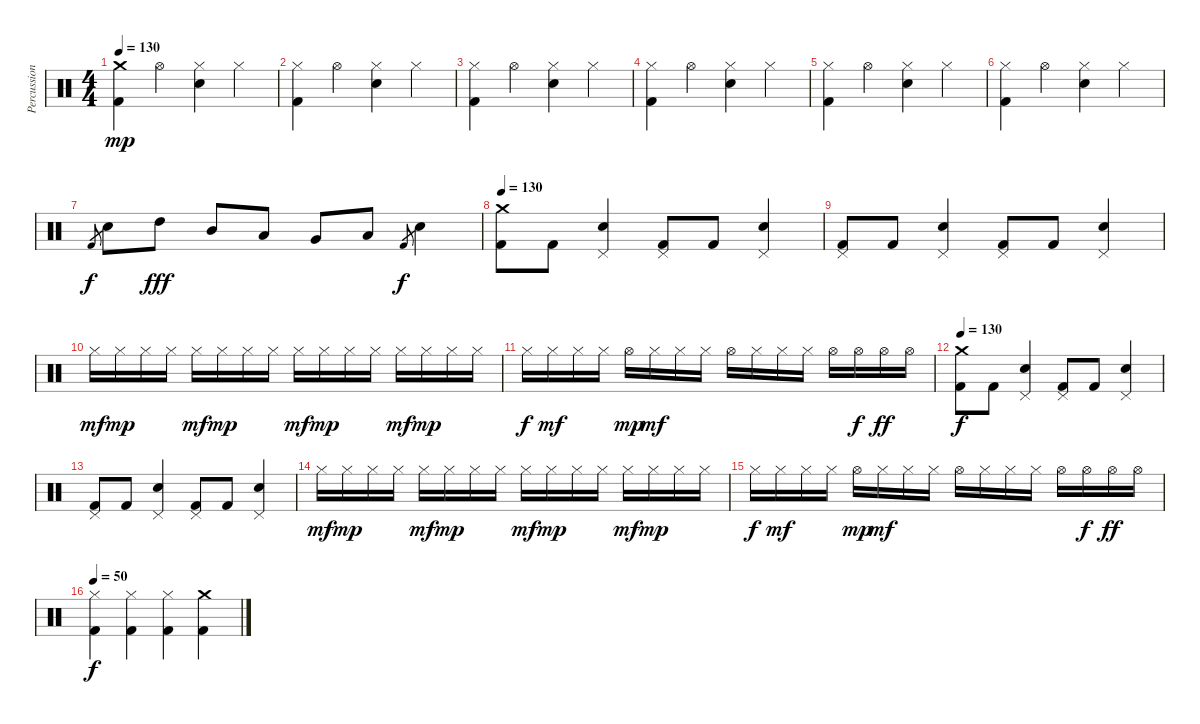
\track ("Percussions" "Percussion") {instrument percussion}
\staff {score}
\articulation defaults
\ts (4 4)
\tempo 130
\clef neutral
\ks c
("Crash medium (hit)" "Kick (hit) 2").4{dy mp} "Hi-Hat (open)".4 ("Hi-Hat (closed)" "Snare (hit) 2").4 "Hi-Hat (closed)".4 |
("Hi-Hat (closed)" "Kick (hit) 2").4 "Hi-Hat (open)".4 ("Hi-Hat (closed)" "Snare (hit) 2").4 "Hi-Hat (closed)".4 |
("Hi-Hat (closed)" "Kick (hit) 2").4 "Hi-Hat (open)".4 ("Hi-Hat (closed)" "Snare (hit) 2").4 "Hi-Hat (closed)".4 |
("Hi-Hat (closed)" "Kick (hit) 2").4 "Hi-Hat (open)".4 ("Hi-Hat (closed)" "Snare (hit) 2").4 "Hi-Hat (closed)".4 |
("Hi-Hat (closed)" "Kick (hit) 2").4 "Hi-Hat (open)".4 ("Hi-Hat (closed)" "Snare (hit) 2").4 "Hi-Hat (closed)".4 |
("Hi-Hat (closed)" "Kick (hit) 2").4 "Hi-Hat (open)".4 ("Hi-Hat (closed)" "Snare (hit) 2").4 "Hi-Hat (closed)".4 |
"Kick (hit) 2".8{gr dy f} "Snare (hit) 2".8 "High Tom (hit)".8{dy fff} "Mid Tom (hit)".8 "Low Tom (hit)".8 "Very Low Tom (hit)".8 "Low Floor Tom (hit)".8 "Kick (hit) 2".8{gr dy f} "Snare (hit) 2".4 |
\tempo 120
\tempo 130
("Crash medium (hit)" "Kick (hit) 2").8 "Kick (hit) 2".8 ("Pedal Hi-Hat (hit)" "Snare (hit) 2").4 ("Pedal Hi-Hat (hit)" "Kick (hit) 2").8 "Kick (hit) 2".8 ("Pedal Hi-Hat (hit)" "Snare (hit) 2").4 |
("Pedal Hi-Hat (hit)" "Kick (hit) 2").8 "Kick (hit) 2".8 ("Pedal Hi-Hat (hit)" "Snare (hit) 2").4 ("Pedal Hi-Hat (hit)" "Kick (hit) 2").8 "Kick (hit) 2".8 ("Pedal Hi-Hat (hit)" "Snare (hit) 2").4 |
"Hi-Hat (closed)".16{dy mf} "Hi-Hat (closed)".16{dy mp} "Hi-Hat (closed)".16 "Hi-Hat (closed)".16 "Hi-Hat (closed)".16{dy mf} "Hi-Hat (closed)".16{dy mp} "Hi-Hat (closed)".16 "Hi-Hat (closed)".16 "Hi-Hat (closed)".16{dy mf} "Hi-Hat (closed)".16{dy mp} "Hi-Hat (closed)".16 "Hi-Hat (closed)".16 "Hi-Hat (closed)".16{dy mf} "Hi-Hat (closed)".16{dy mp} "Hi-Hat (closed)".16 "Hi-Hat (closed)".16 |
"Hi-Hat (closed)".16{dy f} "Hi-Hat (closed)".16{dy mf} "Hi-Hat (closed)".16 "Hi-Hat (closed)".16 "Hi-Hat (open)".16{dy mp} "Hi-Hat (closed)".16{dy mf} "Hi-Hat (closed)".16 "Hi-Hat (closed)".16 "Hi-Hat (open)".16 "Hi-Hat (closed)".16 "Hi-Hat (closed)".16 "Hi-Hat (closed)".16 "Hi-Hat (open)".16 "Hi-Hat (open)".16{dy f} "Hi-Hat (open)".16{dy ff} "Hi-Hat (open)".16 |
\tempo 130
("Crash medium (hit)" "Kick (hit) 2").8{dy f} "Kick (hit) 2".8 ("Pedal Hi-Hat (hit)" "Snare (hit) 2").4 ("Pedal Hi-Hat (hit)" "Kick (hit) 2").8 "Kick (hit) 2".8 ("Pedal Hi-Hat (hit)" "Snare (hit) 2").4 |
("Pedal Hi-Hat (hit)" "Kick (hit) 2").8 "Kick (hit) 2".8 ("Pedal Hi-Hat (hit)" "Snare (hit) 2").4 ("Pedal Hi-Hat (hit)" "Kick (hit) 2").8 "Kick (hit) 2".8 ("Pedal Hi-Hat (hit)" "Snare (hit) 2").4 |
"Hi-Hat (closed)".16{dy mf} "Hi-Hat (closed)".16{dy mp} "Hi-Hat (closed)".16 "Hi-Hat (closed)".16 "Hi-Hat (closed)".16{dy mf} "Hi-Hat (closed)".16{dy mp} "Hi-Hat (closed)".16 "Hi-Hat (closed)".16 "Hi-Hat (closed)".16{dy mf} "Hi-Hat (closed)".16{dy mp} "Hi-Hat (closed)".16 "Hi-Hat (closed)".16 "Hi-Hat (closed)".16{dy mf} "Hi-Hat (closed)".16{dy mp} "Hi-Hat (closed)".16 "Hi-Hat (closed)".16 |
"Hi-Hat (closed)".16{dy f} "Hi-Hat (closed)".16{dy mf} "Hi-Hat (closed)".16 "Hi-Hat (closed)".16 "Hi-Hat (open)".16{dy mp} "Hi-Hat (closed)".16{dy mf} "Hi-Hat (closed)".16 "Hi-Hat (closed)".16 "Hi-Hat (open)".16 "Hi-Hat (closed)".16 "Hi-Hat (closed)".16 "Hi-Hat (closed)".16 "Hi-Hat (open)".16 "Hi-Hat (open)".16{dy f} "Hi-Hat (open)".16{dy ff} "Hi-Hat (open)".16 |
\tempo 50
("Hi-Hat (closed)" "Kick (hit) 2").4{dy f} ("Hi-Hat (closed)" "Kick (hit) 2").4 ("Hi-Hat (closed)" "Kick (hit) 2").4 ("Crash medium (hit)" "Kick (hit) 2").4
